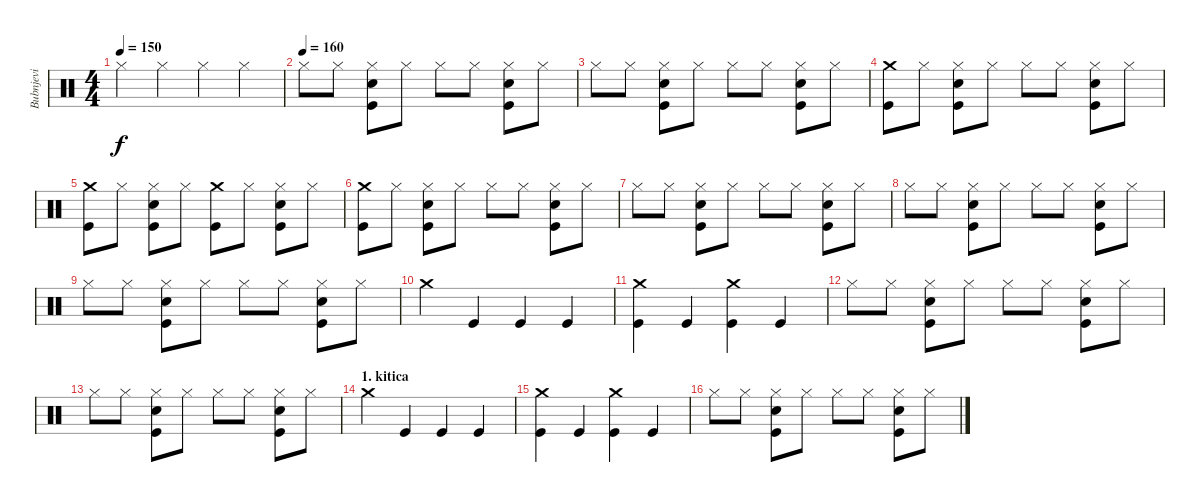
\track ("Bubnjevi" "Bubnjevi") {instrument percussion}
\staff {score}
\articulation defaults
\ts (4 4)
\tempo 150
\clef neutral
\ks c "Hi-Hat (closed)".4{dy f} "Hi-Hat (closed)".4 "Hi-Hat (closed)".4 "Hi-Hat (closed)".4
|
\tempo 180
\tempo (160)
"Hi-Hat (closed)".8 "Hi-Hat (closed)".8 ("Snare (hit) 2" "Hi-Hat (closed)" "Kick (hit)").8 "Hi-Hat (closed)".8 "Hi-Hat (closed)".8 "Hi-Hat (closed)".8 ("Snare (hit) 2" "Hi-Hat (closed)" "Kick (hit)").8 "Hi-Hat (closed)".8 |
"Hi-Hat (closed)".8 "Hi-Hat (closed)".8 ("Snare (hit) 2" "Hi-Hat (closed)" "Kick (hit)").8 "Hi-Hat (closed)".8 "Hi-Hat (closed)".8 "Hi-Hat (closed)".8 ("Snare (hit) 2" "Hi-Hat (closed)" "Kick (hit)").8 "Hi-Hat (closed)".8 |
("Crash medium (hit)" "Kick (hit)").8 "Hi-Hat (closed)".8 ("Snare (hit) 2" "Hi-Hat (closed)" "Kick (hit)").8 "Hi-Hat (closed)".8 "Hi-Hat (closed)".8 "Hi-Hat (closed)".8 ("Snare (hit) 2" "Hi-Hat (closed)" "Kick (hit)").8 "Hi-Hat (closed)".8 |
("Crash medium (hit)" "Kick (hit)").8 "Hi-Hat (closed)".8 ("Snare (hit) 2" "Hi-Hat (closed)" "Kick (hit)").8 "Hi-Hat (closed)".8 ("Crash medium (hit)" "Kick (hit)").8 "Hi-Hat (closed)".8 ("Snare (hit) 2" "Hi-Hat (closed)" "Kick (hit)").8 "Hi-Hat (closed)".8 |
("Crash medium (hit)" "Kick (hit)").8 "Hi-Hat (closed)".8 ("Snare (hit) 2" "Hi-Hat (closed)" "Kick (hit)").8 "Hi-Hat (closed)".8 "Hi-Hat (closed)".8 "Hi-Hat (closed)".8 ("Snare (hit) 2" "Hi-Hat (closed)" "Kick (hit)").8 "Hi-Hat (closed)".8 |
"Hi-Hat (closed)".8 "Hi-Hat (closed)".8 ("Snare (hit) 2" "Hi-Hat (closed)" "Kick (hit)").8 "Hi-Hat (closed)".8 "Hi-Hat (closed)".8 "Hi-Hat (closed)".8 ("Snare (hit) 2" "Hi-Hat (closed)" "Kick (hit)").8 "Hi-Hat (closed)".8 |
"Hi-Hat (closed)".8 "Hi-Hat (closed)".8 ("Snare (hit) 2" "Hi-Hat (closed)" "Kick (hit)").8 "Hi-Hat (closed)".8 "Hi-Hat (closed)".8 "Hi-Hat (closed)".8 ("Snare (hit) 2" "Hi-Hat (closed)" "Kick (hit)").8 "Hi-Hat (closed)".8 |
"Hi-Hat (closed)".8 "Hi-Hat (closed)".8 ("Snare (hit) 2" "Hi-Hat (closed)" "Kick (hit)").8 "Hi-Hat (closed)".8 "Hi-Hat (closed)".8 "Hi-Hat (closed)".8 ("Snare (hit) 2" "Hi-Hat (closed)" "Kick (hit)").8 "Hi-Hat (closed)".8 |
"Crash medium (hit)".4 "Kick (hit)".4 "Kick (hit)".4 "Kick (hit)".4 |
("Crash medium (hit)" "Kick (hit)").4 "Kick (hit)".4 ("Crash medium (hit)" "Kick (hit)").4 "Kick (hit)".4 |
"Hi-Hat (closed)".8 "Hi-Hat (closed)".8 ("Snare (hit) 2" "Hi-Hat (closed)" "Kick (hit)").8 "Hi-Hat (closed)".8 "Hi-Hat (closed)".8 "Hi-Hat (closed)".8 ("Snare (hit) 2" "Hi-Hat (closed)" "Kick (hit)").8 "Hi-Hat (closed)".8 |
"Hi-Hat (closed)".8 "Hi-Hat (closed)".8 ("Snare (hit) 2" "Hi-Hat (closed)" "Kick (hit)").8 "Hi-Hat (closed)".8 "Hi-Hat (closed)".8 "Hi-Hat (closed)".8 ("Snare (hit) 2" "Hi-Hat (closed)" "Kick (hit)").8 "Hi-Hat (closed)".8 |
\section ("" "1. kitica")
"Crash medium (hit)".4 "Kick (hit)".4 "Kick (hit)".4 "Kick (hit)".4 |
("Crash medium (hit)" "Kick (hit)").4 "Kick (hit)".4 ("Crash medium (hit)" "Kick (hit)").4 "Kick (hit)".4 |
"Hi-Hat (closed)".8 "Hi-Hat (closed)".8 ("Snare (hit) 2" "Hi-Hat (closed)" "Kick (hit)").8 "Hi-Hat (closed)".8 "Hi-Hat (closed)".8 "Hi-Hat (closed)".8 ("Snare (hit) 2" "Hi-Hat (closed)" "Kick (hit)").8 "Hi-Hat (closed)".8
